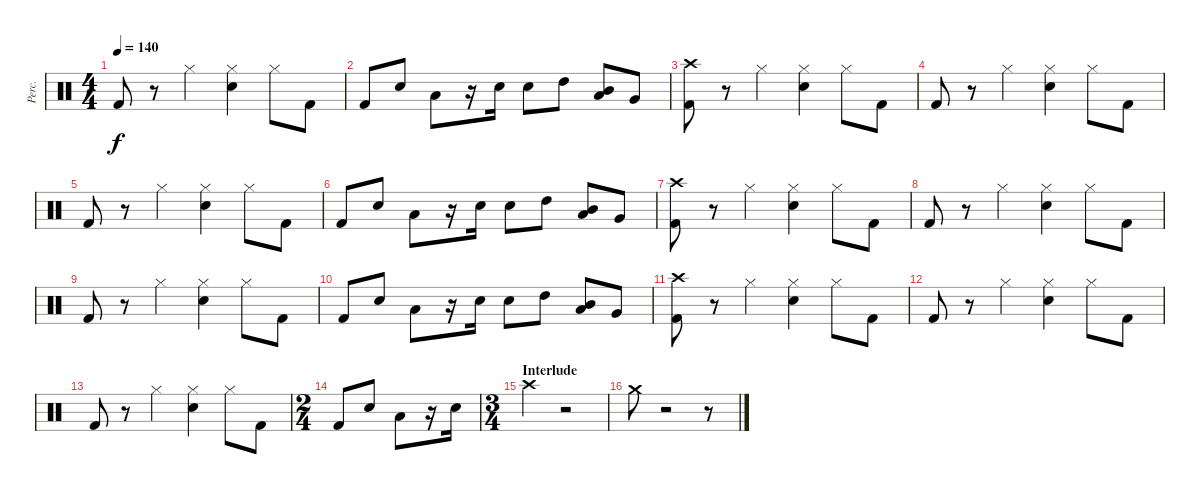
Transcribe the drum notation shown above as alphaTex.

\track ("Perc." "Perc.") {instrument percussion}
\staff {score}
\articulation defaults
\ts (4 4)
\tempo 140
\clef neutral
\ks c "Kick (hit) 2".8{dy f}
r.8 "Hi-Hat (closed)".4 ("Electric Snare (hit)" "Hi-Hat (closed)").4 "Hi-Hat (closed)".8 "Kick (hit) 2".8 |
"Kick (hit) 2".8 "Electric Snare (hit)".8 "Low Tom (hit)".8 r.16 "Electric Snare (hit)".16 "Electric Snare (hit)".8 "High Tom (hit)".8 ("Low Tom (hit)" "Mid Tom (hit)").8 "Very Low Tom (hit)".8 |
("Crash high (hit)" "Kick (hit) 2").8 r.8 "Hi-Hat (closed)".4 ("Electric Snare (hit)" "Hi-Hat (closed)").4 "Hi-Hat (closed)".8 "Kick (hit) 2".8 |
"Kick (hit) 2".8 r.8 "Hi-Hat (closed)".4 ("Electric Snare (hit)" "Hi-Hat (closed)").4 "Hi-Hat (closed)".8 "Kick (hit) 2".8 |
"Kick (hit) 2".8 r.8 "Hi-Hat (closed)".4 ("Electric Snare (hit)" "Hi-Hat (closed)").4 "Hi-Hat (closed)".8 "Kick (hit) 2".8 |
"Kick (hit) 2".8 "Electric Snare (hit)".8 "Low Tom (hit)".8 r.16 "Electric Snare (hit)".16 "Electric Snare (hit)".8 "High Tom (hit)".8 ("Low Tom (hit)" "Mid Tom (hit)").8 "Very Low Tom (hit)".8 |
("Crash high (hit)" "Kick (hit) 2").8 r.8 "Hi-Hat (closed)".4 ("Electric Snare (hit)" "Hi-Hat (closed)").4 "Hi-Hat (closed)".8 "Kick (hit) 2".8 |
"Kick (hit) 2".8 r.8 "Hi-Hat (closed)".4 ("Electric Snare (hit)" "Hi-Hat (closed)").4 "Hi-Hat (closed)".8 "Kick (hit) 2".8 |
"Kick (hit) 2".8 r.8 "Hi-Hat (closed)".4 ("Electric Snare (hit)" "Hi-Hat (closed)").4 "Hi-Hat (closed)".8 "Kick (hit) 2".8 |
"Kick (hit) 2".8 "Electric Snare (hit)".8 "Low Tom (hit)".8 r.16 "Electric Snare (hit)".16 "Electric Snare (hit)".8 "High Tom (hit)".8 ("Low Tom (hit)" "Mid Tom (hit)").8 "Very Low Tom (hit)".8 |
("Crash high (hit)" "Kick (hit) 2").8 r.8 "Hi-Hat (closed)".4 ("Electric Snare (hit)" "Hi-Hat (closed)").4 "Hi-Hat (closed)".8 "Kick (hit) 2".8 |
"Kick (hit) 2".8 r.8 "Hi-Hat (closed)".4 ("Electric Snare (hit)" "Hi-Hat (closed)").4 "Hi-Hat (closed)".8 "Kick (hit) 2".8 |
"Kick (hit) 2".8 r.8 "Hi-Hat (closed)".4 ("Electric Snare (hit)" "Hi-Hat (closed)").4 "Hi-Hat (closed)".8 "Kick (hit) 2".8 |
\ts (2 4)
"Kick (hit) 2".8 "Electric Snare (hit)".8 "Low Tom (hit)".8 r.16 "Electric Snare (hit)".16 |
\ts (3 4)
\section ("" "Interlude")
"Crash high (hit)".4 r.2 |
"Crash medium (hit)".8 r.2 r.8
